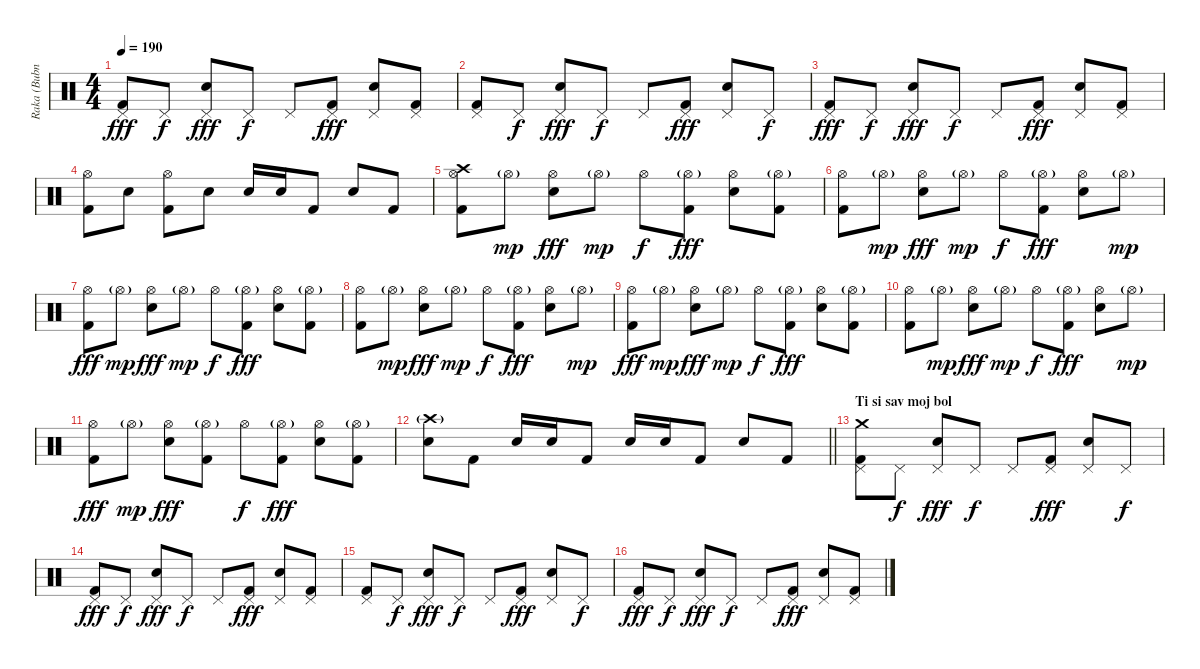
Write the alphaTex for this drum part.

\track ("Raka (Bubnjevi)" "Raka (Bubn") {instrument percussion}
\staff {score}
\articulation defaults
\ts (4 4)
\tempo 190
\clef neutral
\ks c
("Pedal Hi-Hat (hit)" "Kick (hit) 2").8{dy fff} "Pedal Hi-Hat (hit)".8{dy f} ("Pedal Hi-Hat (hit)" "Snare (hit) 2").8{dy fff} "Pedal Hi-Hat (hit)".8{dy f} "Pedal Hi-Hat (hit)".8 ("Pedal Hi-Hat (hit)" "Kick (hit) 2").8{dy fff} ("Pedal Hi-Hat (hit)" "Snare (hit) 2").8 ("Pedal Hi-Hat (hit)" "Kick (hit) 2").8 |
("Pedal Hi-Hat (hit)" "Kick (hit) 2").8 "Pedal Hi-Hat (hit)".8{dy f} ("Pedal Hi-Hat (hit)" "Snare (hit) 2").8{dy fff} "Pedal Hi-Hat (hit)".8{dy f} "Pedal Hi-Hat (hit)".8 ("Pedal Hi-Hat (hit)" "Kick (hit) 2").8{dy fff} ("Pedal Hi-Hat (hit)" "Snare (hit) 2").8 "Pedal Hi-Hat (hit)".8{dy f} |
("Pedal Hi-Hat (hit)" "Kick (hit) 2").8{dy fff} "Pedal Hi-Hat (hit)".8{dy f} ("Pedal Hi-Hat (hit)" "Snare (hit) 2").8{dy fff} "Pedal Hi-Hat (hit)".8{dy f} "Pedal Hi-Hat (hit)".8 ("Pedal Hi-Hat (hit)" "Kick (hit) 2").8{dy fff} ("Pedal Hi-Hat (hit)" "Snare (hit) 2").8 ("Pedal Hi-Hat (hit)" "Kick (hit) 2").8 |
("Hi-Hat (open)" "Kick (hit) 2").8 "Snare (hit) 2".8 ("Hi-Hat (open)" "Kick (hit) 2").8 "Snare (hit) 2".8 "Snare (hit) 2".16 "Snare (hit) 2".16 "Kick (hit) 2".8 "Snare (hit) 2".8 "Kick (hit) 2".8 |
("Crash high (hit)" "Hi-Hat (open)" "Kick (hit) 2").8 "Hi-Hat (open)"{g}.8{dy mp} ("Hi-Hat (open)" "Snare (hit) 2").8{dy fff} "Hi-Hat (open)"{g}.8{dy mp} "Hi-Hat (open)".8{dy f} ("Hi-Hat (open)"{g} "Kick (hit) 2").8{dy fff} ("Hi-Hat (open)" "Snare (hit) 2").8 ("Hi-Hat (open)"{g} "Kick (hit) 2").8 |
("Hi-Hat (open)" "Kick (hit) 2").8 "Hi-Hat (open)"{g}.8{dy mp} ("Hi-Hat (open)" "Snare (hit) 2").8{dy fff} "Hi-Hat (open)"{g}.8{dy mp} "Hi-Hat (open)".8{dy f} ("Hi-Hat (open)"{g} "Kick (hit) 2").8{dy fff} ("Hi-Hat (open)" "Snare (hit) 2").8 "Hi-Hat (open)"{g}.8{dy mp} |
("Hi-Hat (open)" "Kick (hit) 2").8{dy fff} "Hi-Hat (open)"{g}.8{dy mp} ("Hi-Hat (open)" "Snare (hit) 2").8{dy fff} "Hi-Hat (open)"{g}.8{dy mp} "Hi-Hat (open)".8{dy f} ("Hi-Hat (open)"{g} "Kick (hit) 2").8{dy fff} ("Hi-Hat (open)" "Snare (hit) 2").8 ("Hi-Hat (open)"{g} "Kick (hit) 2").8 |
("Hi-Hat (open)" "Kick (hit) 2").8 "Hi-Hat (open)"{g}.8{dy mp} ("Hi-Hat (open)" "Snare (hit) 2").8{dy fff} "Hi-Hat (open)"{g}.8{dy mp} "Hi-Hat (open)".8{dy f} ("Hi-Hat (open)"{g} "Kick (hit) 2").8{dy fff} ("Hi-Hat (open)" "Snare (hit) 2").8 "Hi-Hat (open)"{g}.8{dy mp} |
("Hi-Hat (open)" "Kick (hit) 2").8{dy fff} "Hi-Hat (open)"{g}.8{dy mp} ("Hi-Hat (open)" "Snare (hit) 2").8{dy fff} "Hi-Hat (open)"{g}.8{dy mp} "Hi-Hat (open)".8{dy f} ("Hi-Hat (open)"{g} "Kick (hit) 2").8{dy fff} ("Hi-Hat (open)" "Snare (hit) 2").8 ("Hi-Hat (open)"{g} "Kick (hit) 2").8 |
("Hi-Hat (open)" "Kick (hit) 2").8 "Hi-Hat (open)"{g}.8{dy mp} ("Hi-Hat (open)" "Snare (hit) 2").8{dy fff} "Hi-Hat (open)"{g}.8{dy mp} "Hi-Hat (open)".8{dy f} ("Hi-Hat (open)"{g} "Kick (hit) 2").8{dy fff} ("Hi-Hat (open)" "Snare (hit) 2").8 "Hi-Hat (open)"{g}.8{dy mp} |
("Hi-Hat (open)" "Kick (hit) 2").8{dy fff} "Hi-Hat (open)"{g}.8{dy mp} ("Hi-Hat (open)" "Snare (hit) 2").8{dy fff} ("Hi-Hat (open)"{g} "Kick (hit) 2").8 "Hi-Hat (open)".8{dy f} ("Hi-Hat (open)"{g} "Kick (hit) 2").8{dy fff} ("Hi-Hat (open)" "Snare (hit) 2").8 ("Hi-Hat (open)"{g} "Kick (hit) 2").8 |
\barLineRight lightlight
("Crash high (hit)"{g} "Snare (hit) 2").8 "Kick (hit) 2".8 "Snare (hit) 2".16 "Snare (hit) 2".16 "Kick (hit) 2".8 "Snare (hit) 2".16 "Snare (hit) 2".16 "Kick (hit) 2".8 "Snare (hit) 2".8 "Kick (hit) 2".8 |
\section ("" "Ti si sav moj bol")
("Crash medium (hit)" "Pedal Hi-Hat (hit)" "Kick (hit) 2").8 "Pedal Hi-Hat (hit)".8{dy f} ("Pedal Hi-Hat (hit)" "Snare (hit) 2").8{dy fff} "Pedal Hi-Hat (hit)".8{dy f} "Pedal Hi-Hat (hit)".8 ("Pedal Hi-Hat (hit)" "Kick (hit) 2").8{dy fff} ("Pedal Hi-Hat (hit)" "Snare (hit) 2").8 "Pedal Hi-Hat (hit)".8{dy f} |
("Pedal Hi-Hat (hit)" "Kick (hit) 2").8{dy fff} "Pedal Hi-Hat (hit)".8{dy f} ("Pedal Hi-Hat (hit)" "Snare (hit) 2").8{dy fff} "Pedal Hi-Hat (hit)".8{dy f} "Pedal Hi-Hat (hit)".8 ("Pedal Hi-Hat (hit)" "Kick (hit) 2").8{dy fff} ("Pedal Hi-Hat (hit)" "Snare (hit) 2").8 ("Pedal Hi-Hat (hit)" "Kick (hit) 2").8 |
("Pedal Hi-Hat (hit)" "Kick (hit) 2").8 "Pedal Hi-Hat (hit)".8{dy f} ("Pedal Hi-Hat (hit)" "Snare (hit) 2").8{dy fff} "Pedal Hi-Hat (hit)".8{dy f} "Pedal Hi-Hat (hit)".8 ("Pedal Hi-Hat (hit)" "Kick (hit) 2").8{dy fff} ("Pedal Hi-Hat (hit)" "Snare (hit) 2").8 "Pedal Hi-Hat (hit)".8{dy f} |
("Pedal Hi-Hat (hit)" "Kick (hit) 2").8{dy fff} "Pedal Hi-Hat (hit)".8{dy f} ("Pedal Hi-Hat (hit)" "Snare (hit) 2").8{dy fff} "Pedal Hi-Hat (hit)".8{dy f} "Pedal Hi-Hat (hit)".8 ("Pedal Hi-Hat (hit)" "Kick (hit) 2").8{dy fff} ("Pedal Hi-Hat (hit)" "Snare (hit) 2").8 ("Pedal Hi-Hat (hit)" "Kick (hit) 2").8
